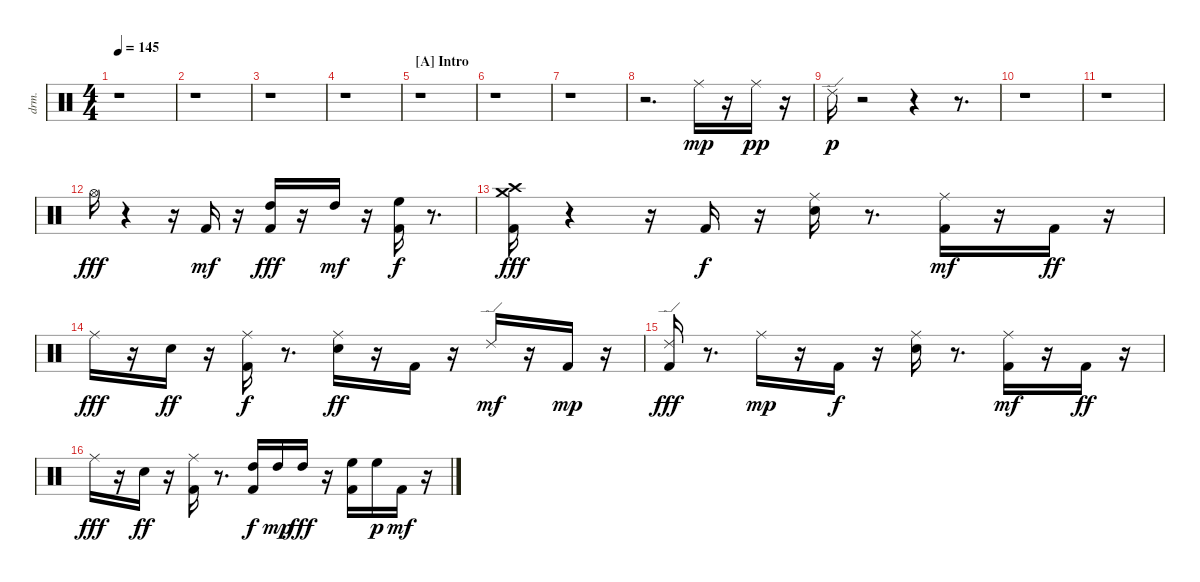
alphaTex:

\bracketExtendMode nobrackets
\track ("EZdrummer 3" "drm.") {instrument percussion}
\staff {score}
\articulation defaults
\ts (4 4)
\tempo 145
\clef neutral
\ks aminor
r.1{dy mp} |
r.1 |
r.1 |
r.1 |
\section ("A" "Intro")
r.1 |
r.1 |
r.1 |
r.2{d} "Ride (middle)"{acc #}.16 r.16 "Ride (middle)"{acc #}.16{dy pp} r.16 |
"Ride (edge) 2".16{dy p} r.2 r.4 r.8{d} |
r.1 |
r.1 |
"Hi-Hat (open)"{acc #}.16{dy fff} r.4 r.16 "Kick (hit) 2".16{dy mf} r.16 ("Kick (hit) 2" "High Tom (hit)").16{dy fff} r.16 "High Tom (hit)".16{dy mf} r.16 ("Kick (hit) 2" "High Floor Tom (hit)").16{dy f} r.8{d} |
("Kick (hit) 2" "Crash high (hit)"{acc #} "Crash medium (hit)").16{dy fff} r.4 r.16 "Kick (hit) 2".16{dy f} r.16 ("Snare (hit) 2" "Ride (middle)"{acc #}).16 r.8{d} ("Kick (hit) 2" "Ride (middle)"{acc #}).16{dy mf} r.16 "Kick (hit) 2".16{dy ff} r.16 |
"Ride (middle)"{acc #}.16{dy fff} r.16 "Snare (hit) 2".16{dy ff} r.16 ("Kick (hit) 2" "Ride (middle)"{acc #}).16{dy f} r.8{d} ("Snare (hit) 2" "Ride (middle)"{acc #}).16{dy ff} r.16 "Kick (hit) 2".16 r.16 "Ride (edge) 2".16{dy mf} r.16 "Kick (hit) 2".16{dy mp} r.16 |
("Kick (hit) 2" "Ride (edge) 2").16{dy fff} r.8{d} "Ride (middle)"{acc #}.16{dy mp} r.16 "Kick (hit) 2".16{dy f} r.16 ("Snare (hit) 2" "Ride (middle)"{acc #}).16 r.8{d} ("Kick (hit) 2" "Ride (middle)"{acc #}).16{dy mf} r.16 "Kick (hit) 2".16{dy ff} r.16 |
"Ride (middle)"{acc #}.16{dy fff} r.16 "Snare (hit) 2".16{dy ff} r.16 ("Kick (hit) 2" "Ride (middle)"{acc #}).16 r.8{d} ("Kick (hit) 2" "High Tom (hit)").16{dy f} "High Tom (hit)".16{dy mp} "High Tom (hit)".16{dy fff} r.16 ("Kick (hit) 2" "High Floor Tom (hit)").16 "High Floor Tom (hit)".16{dy p} "Kick (hit) 2".16{dy mf} r.16
